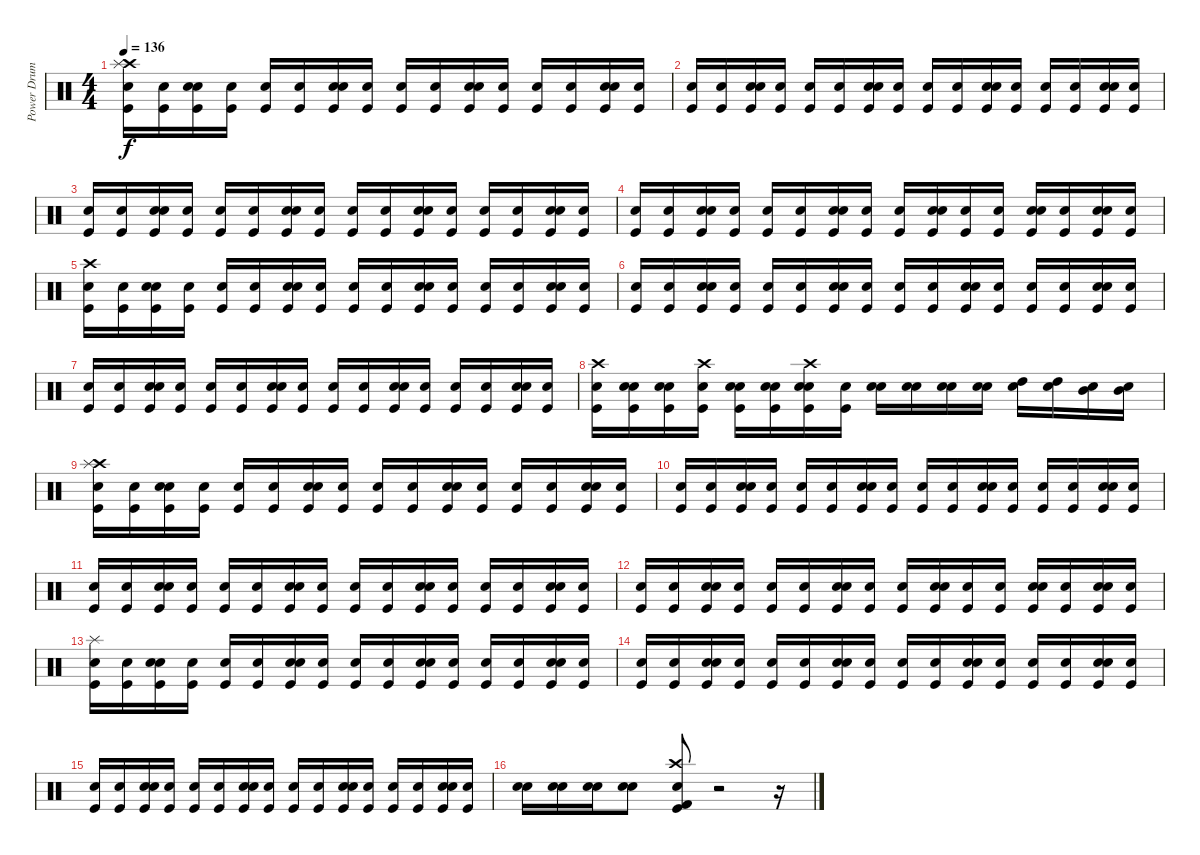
\track ("Power Drums" "Power Drum") {instrument percussion}
\staff {score}
\articulation defaults
\ts (4 4)
\tempo 136
\clef neutral
\ks c
("Snare (hit)" "Kick (hit)" "Crash high (hit)" "Splash (hit)").16{dy f} ("Snare (hit)" "Kick (hit)").16 ("Snare (hit)" "Kick (hit)" "Snare (hit) 2").16 ("Snare (hit)" "Kick (hit)").16 ("Snare (hit)" "Kick (hit)").16 ("Snare (hit)" "Kick (hit)").16 ("Snare (hit)" "Kick (hit)" "Snare (hit) 2").16 ("Snare (hit)" "Kick (hit)").16 ("Snare (hit)" "Kick (hit)").16 ("Snare (hit)" "Kick (hit)").16 ("Snare (hit)" "Kick (hit)" "Snare (hit) 2").16 ("Snare (hit)" "Kick (hit)").16 ("Snare (hit)" "Kick (hit)").16 ("Snare (hit)" "Kick (hit)").16 ("Snare (hit)" "Kick (hit)" "Snare (hit) 2").16 ("Snare (hit)" "Kick (hit)").16 |
("Snare (hit)" "Kick (hit)").16 ("Snare (hit)" "Kick (hit)").16 ("Snare (hit)" "Kick (hit)" "Snare (hit) 2").16 ("Snare (hit)" "Kick (hit)").16 ("Snare (hit)" "Kick (hit)").16 ("Snare (hit)" "Kick (hit)").16 ("Snare (hit)" "Kick (hit)" "Snare (hit) 2").16 ("Snare (hit)" "Kick (hit)").16 ("Snare (hit)" "Kick (hit)").16 ("Snare (hit)" "Kick (hit)").16 ("Snare (hit)" "Kick (hit)" "Snare (hit) 2").16 ("Snare (hit)" "Kick (hit)").16 ("Snare (hit)" "Kick (hit)").16 ("Snare (hit)" "Kick (hit)").16 ("Snare (hit)" "Kick (hit)" "Snare (hit) 2").16 ("Snare (hit)" "Kick (hit)").16 |
("Snare (hit)" "Kick (hit)").16 ("Snare (hit)" "Kick (hit)").16 ("Snare (hit)" "Kick (hit)" "Snare (hit) 2").16 ("Snare (hit)" "Kick (hit)").16 ("Snare (hit)" "Kick (hit)").16 ("Snare (hit)" "Kick (hit)").16 ("Snare (hit)" "Kick (hit)" "Snare (hit) 2").16 ("Snare (hit)" "Kick (hit)").16 ("Snare (hit)" "Kick (hit)").16 ("Snare (hit)" "Kick (hit)").16 ("Snare (hit)" "Kick (hit)" "Snare (hit) 2").16 ("Snare (hit)" "Kick (hit)").16 ("Snare (hit)" "Kick (hit)").16 ("Snare (hit)" "Kick (hit)").16 ("Snare (hit)" "Kick (hit)" "Snare (hit) 2").16 ("Snare (hit)" "Kick (hit)").16 |
("Snare (hit)" "Kick (hit)").16 ("Snare (hit)" "Kick (hit)").16 ("Snare (hit)" "Kick (hit)" "Snare (hit) 2").16 ("Snare (hit)" "Kick (hit)").16 ("Snare (hit)" "Kick (hit)").16 ("Snare (hit)" "Kick (hit)").16 ("Snare (hit)" "Kick (hit)" "Snare (hit) 2").16 ("Snare (hit)" "Kick (hit)").16 ("Snare (hit)" "Kick (hit)").16 ("Snare (hit)" "Kick (hit)" "Snare (hit) 2").16 ("Snare (hit)" "Kick (hit)").16 ("Snare (hit)" "Kick (hit)").16 ("Snare (hit)" "Kick (hit)" "Snare (hit) 2").16 ("Snare (hit)" "Kick (hit)").16 ("Snare (hit)" "Kick (hit)" "Snare (hit) 2").16 ("Snare (hit)" "Kick (hit)").16 |
("Snare (hit)" "Kick (hit)" "Crash high (hit)").16 ("Snare (hit)" "Kick (hit)").16 ("Snare (hit)" "Kick (hit)" "Snare (hit) 2").16 ("Snare (hit)" "Kick (hit)").16 ("Snare (hit)" "Kick (hit)").16 ("Snare (hit)" "Kick (hit)").16 ("Snare (hit)" "Kick (hit)" "Snare (hit) 2").16 ("Snare (hit)" "Kick (hit)").16 ("Snare (hit)" "Kick (hit)").16 ("Snare (hit)" "Kick (hit)").16 ("Snare (hit)" "Kick (hit)" "Snare (hit) 2").16 ("Snare (hit)" "Kick (hit)").16 ("Snare (hit)" "Kick (hit)").16 ("Snare (hit)" "Kick (hit)").16 ("Snare (hit)" "Kick (hit)" "Snare (hit) 2").16 ("Snare (hit)" "Kick (hit)").16 |
("Snare (hit)" "Kick (hit)").16 ("Snare (hit)" "Kick (hit)").16 ("Snare (hit)" "Kick (hit)" "Snare (hit) 2").16 ("Snare (hit)" "Kick (hit)").16 ("Snare (hit)" "Kick (hit)").16 ("Snare (hit)" "Kick (hit)").16 ("Snare (hit)" "Kick (hit)" "Snare (hit) 2").16 ("Snare (hit)" "Kick (hit)").16 ("Snare (hit)" "Kick (hit)").16 ("Snare (hit)" "Kick (hit)").16 ("Snare (hit)" "Kick (hit)" "Snare (hit) 2").16 ("Snare (hit)" "Kick (hit)").16 ("Snare (hit)" "Kick (hit)").16 ("Snare (hit)" "Kick (hit)").16 ("Snare (hit)" "Kick (hit)" "Snare (hit) 2").16 ("Snare (hit)" "Kick (hit)").16 |
("Snare (hit)" "Kick (hit)").16 ("Snare (hit)" "Kick (hit)").16 ("Snare (hit)" "Kick (hit)" "Snare (hit) 2").16 ("Snare (hit)" "Kick (hit)").16 ("Snare (hit)" "Kick (hit)").16 ("Snare (hit)" "Kick (hit)").16 ("Snare (hit)" "Kick (hit)" "Snare (hit) 2").16 ("Snare (hit)" "Kick (hit)").16 ("Snare (hit)" "Kick (hit)").16 ("Snare (hit)" "Kick (hit)").16 ("Snare (hit)" "Kick (hit)" "Snare (hit) 2").16 ("Snare (hit)" "Kick (hit)").16 ("Snare (hit)" "Kick (hit)").16 ("Snare (hit)" "Kick (hit)").16 ("Snare (hit)" "Kick (hit)" "Snare (hit) 2").16 ("Snare (hit)" "Kick (hit)").16 |
("Snare (hit)" "Kick (hit)" "Crash high (hit)").16 ("Snare (hit)" "Kick (hit)" "Snare (hit) 2").16 ("Snare (hit)" "Kick (hit)" "Snare (hit) 2").16 ("Snare (hit)" "Kick (hit)" "Crash high (hit)").16 ("Snare (hit)" "Kick (hit)" "Snare (hit) 2").16 ("Snare (hit)" "Kick (hit)" "Snare (hit) 2").16 ("Snare (hit)" "Kick (hit)" "Snare (hit) 2" "Crash high (hit)").16 ("Snare (hit)" "Kick (hit)").16 ("Snare (hit)" "Snare (hit) 2").16 ("Snare (hit)" "Snare (hit) 2").16 ("Snare (hit)" "Snare (hit) 2").16 ("Snare (hit)" "Snare (hit) 2").16 ("Snare (hit)" "High Tom (hit)").16 ("Snare (hit)" "High Tom (hit)").16 ("Snare (hit)" "Mid Tom (hit)").16 ("Snare (hit)" "Mid Tom (hit)").16 |
("Snare (hit)" "Kick (hit)" "Crash high (hit)" "Splash (hit)").16 ("Snare (hit)" "Kick (hit)").16 ("Snare (hit)" "Kick (hit)" "Snare (hit) 2").16 ("Snare (hit)" "Kick (hit)").16 ("Snare (hit)" "Kick (hit)").16 ("Snare (hit)" "Kick (hit)").16 ("Snare (hit)" "Kick (hit)" "Snare (hit) 2").16 ("Snare (hit)" "Kick (hit)").16 ("Snare (hit)" "Kick (hit)").16 ("Snare (hit)" "Kick (hit)").16 ("Snare (hit)" "Kick (hit)" "Snare (hit) 2").16 ("Snare (hit)" "Kick (hit)").16 ("Snare (hit)" "Kick (hit)").16 ("Snare (hit)" "Kick (hit)").16 ("Snare (hit)" "Kick (hit)" "Snare (hit) 2").16 ("Snare (hit)" "Kick (hit)").16 |
("Snare (hit)" "Kick (hit)").16 ("Snare (hit)" "Kick (hit)").16 ("Snare (hit)" "Kick (hit)" "Snare (hit) 2").16 ("Snare (hit)" "Kick (hit)").16 ("Snare (hit)" "Kick (hit)").16 ("Snare (hit)" "Kick (hit)").16 ("Snare (hit)" "Kick (hit)" "Snare (hit) 2").16 ("Snare (hit)" "Kick (hit)").16 ("Snare (hit)" "Kick (hit)").16 ("Snare (hit)" "Kick (hit)").16 ("Snare (hit)" "Kick (hit)" "Snare (hit) 2").16 ("Snare (hit)" "Kick (hit)").16 ("Snare (hit)" "Kick (hit)").16 ("Snare (hit)" "Kick (hit)").16 ("Snare (hit)" "Kick (hit)" "Snare (hit) 2").16 ("Snare (hit)" "Kick (hit)").16 |
("Snare (hit)" "Kick (hit)").16 ("Snare (hit)" "Kick (hit)").16 ("Snare (hit)" "Kick (hit)" "Snare (hit) 2").16 ("Snare (hit)" "Kick (hit)").16 ("Snare (hit)" "Kick (hit)").16 ("Snare (hit)" "Kick (hit)").16 ("Snare (hit)" "Kick (hit)" "Snare (hit) 2").16 ("Snare (hit)" "Kick (hit)").16 ("Snare (hit)" "Kick (hit)").16 ("Snare (hit)" "Kick (hit)").16 ("Snare (hit)" "Kick (hit)" "Snare (hit) 2").16 ("Snare (hit)" "Kick (hit)").16 ("Snare (hit)" "Kick (hit)").16 ("Snare (hit)" "Kick (hit)").16 ("Snare (hit)" "Kick (hit)" "Snare (hit) 2").16 ("Snare (hit)" "Kick (hit)").16 |
("Snare (hit)" "Kick (hit)").16 ("Snare (hit)" "Kick (hit)").16 ("Snare (hit)" "Kick (hit)" "Snare (hit) 2").16 ("Snare (hit)" "Kick (hit)").16 ("Snare (hit)" "Kick (hit)").16 ("Snare (hit)" "Kick (hit)").16 ("Snare (hit)" "Kick (hit)" "Snare (hit) 2").16 ("Snare (hit)" "Kick (hit)").16 ("Snare (hit)" "Kick (hit)").16 ("Snare (hit)" "Kick (hit)" "Snare (hit) 2").16 ("Snare (hit)" "Kick (hit)").16 ("Snare (hit)" "Kick (hit)").16 ("Snare (hit)" "Kick (hit)" "Snare (hit) 2").16 ("Snare (hit)" "Kick (hit)").16 ("Snare (hit)" "Kick (hit)" "Snare (hit) 2").16 ("Snare (hit)" "Kick (hit)").16 |
("Snare (hit)" "Kick (hit)" "Splash (hit)").16 ("Snare (hit)" "Kick (hit)").16 ("Snare (hit)" "Kick (hit)" "Snare (hit) 2").16 ("Snare (hit)" "Kick (hit)").16 ("Snare (hit)" "Kick (hit)").16 ("Snare (hit)" "Kick (hit)").16 ("Snare (hit)" "Kick (hit)" "Snare (hit) 2").16 ("Snare (hit)" "Kick (hit)").16 ("Snare (hit)" "Kick (hit)").16 ("Snare (hit)" "Kick (hit)").16 ("Snare (hit)" "Kick (hit)" "Snare (hit) 2").16 ("Snare (hit)" "Kick (hit)").16 ("Snare (hit)" "Kick (hit)").16 ("Snare (hit)" "Kick (hit)").16 ("Snare (hit)" "Kick (hit)" "Snare (hit) 2").16 ("Snare (hit)" "Kick (hit)").16 |
("Snare (hit)" "Kick (hit)").16 ("Snare (hit)" "Kick (hit)").16 ("Snare (hit)" "Kick (hit)" "Snare (hit) 2").16 ("Snare (hit)" "Kick (hit)").16 ("Snare (hit)" "Kick (hit)").16 ("Snare (hit)" "Kick (hit)").16 ("Snare (hit)" "Kick (hit)" "Snare (hit) 2").16 ("Snare (hit)" "Kick (hit)").16 ("Snare (hit)" "Kick (hit)").16 ("Snare (hit)" "Kick (hit)").16 ("Snare (hit)" "Kick (hit)" "Snare (hit) 2").16 ("Snare (hit)" "Kick (hit)").16 ("Snare (hit)" "Kick (hit)").16 ("Snare (hit)" "Kick (hit)").16 ("Snare (hit)" "Kick (hit)" "Snare (hit) 2").16 ("Snare (hit)" "Kick (hit)").16 |
("Snare (hit)" "Kick (hit)").16 ("Snare (hit)" "Kick (hit)").16 ("Snare (hit)" "Kick (hit)" "Snare (hit) 2").16 ("Snare (hit)" "Kick (hit)").16 ("Snare (hit)" "Kick (hit)").16 ("Snare (hit)" "Kick (hit)").16 ("Snare (hit)" "Kick (hit)" "Snare (hit) 2").16 ("Snare (hit)" "Kick (hit)").16 ("Snare (hit)" "Kick (hit)").16 ("Snare (hit)" "Kick (hit)").16 ("Snare (hit)" "Kick (hit)" "Snare (hit) 2").16 ("Snare (hit)" "Kick (hit)").16 ("Snare (hit)" "Kick (hit)").16 ("Snare (hit)" "Kick (hit)").16 ("Snare (hit)" "Kick (hit)" "Snare (hit) 2").16 ("Snare (hit)" "Kick (hit)").16 |
("Snare (hit)" "Electric Snare (hit)").16 ("Snare (hit)" "Electric Snare (hit)").16 ("Snare (hit)" "Electric Snare (hit)").16 ("Snare (hit)" "Electric Snare (hit)").8 ("Snare (hit)" "Kick (hit)" "Kick (hit) 2" "Crash high (hit)").8 r.2 r.16
